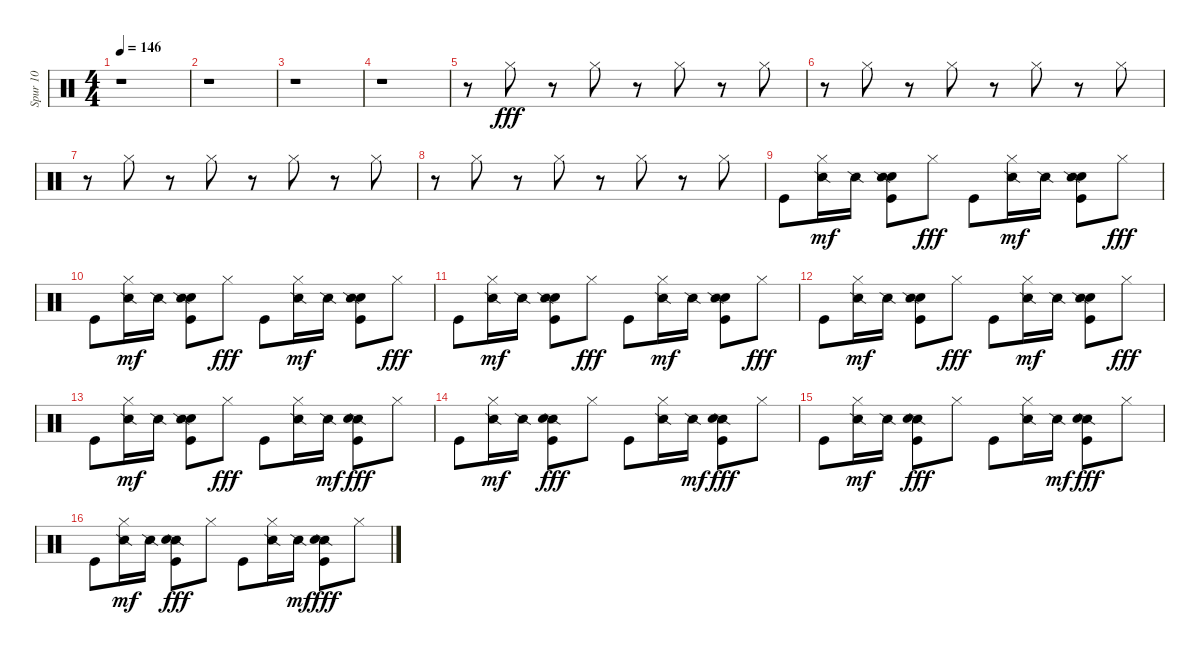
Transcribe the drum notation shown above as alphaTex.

\track ("Spur 10" "Spur 10") {instrument percussion}
\staff {score}
\articulation defaults
\ts (4 4)
\tempo 146
\clef neutral
\ks c
r.1{dy fff} |
r.1 |
r.1 |
r.1 |
r.8 "Hi-Hat (closed)".8 r.8 "Hi-Hat (closed)".8 r.8 "Hi-Hat (closed)".8 r.8 "Hi-Hat (closed)".8 |
r.8 "Hi-Hat (closed)".8 r.8 "Hi-Hat (closed)".8 r.8 "Hi-Hat (closed)".8 r.8 "Hi-Hat (closed)".8 |
r.8 "Hi-Hat (closed)".8 r.8 "Hi-Hat (closed)".8 r.8 "Hi-Hat (closed)".8 r.8 "Hi-Hat (closed)".8 |
r.8 "Hi-Hat (closed)".8 r.8 "Hi-Hat (closed)".8 r.8 "Hi-Hat (closed)".8 r.8 "Hi-Hat (closed)".8 |
"Kick (hit)".8 ("Hi-Hat (closed)" "Snare (side stick) 2").16{dy mf} "Snare (side stick) 2".16 ("Kick (hit)" "Hand Clap (hit)" "Snare (side stick) 2").8 "Hi-Hat (closed)".8{dy fff} "Kick (hit)".8 ("Hi-Hat (closed)" "Snare (side stick) 2").16{dy mf} "Snare (side stick) 2".16 ("Kick (hit)" "Hand Clap (hit)" "Snare (side stick) 2").8 "Hi-Hat (closed)".8{dy fff} |
"Kick (hit)".8 ("Hi-Hat (closed)" "Snare (side stick) 2").16{dy mf} "Snare (side stick) 2".16 ("Kick (hit)" "Hand Clap (hit)" "Snare (side stick) 2").8 "Hi-Hat (closed)".8{dy fff} "Kick (hit)".8 ("Hi-Hat (closed)" "Snare (side stick) 2").16{dy mf} "Snare (side stick) 2".16 ("Kick (hit)" "Hand Clap (hit)" "Snare (side stick) 2").8 "Hi-Hat (closed)".8{dy fff} |
"Kick (hit)".8 ("Hi-Hat (closed)" "Snare (side stick) 2").16{dy mf} "Snare (side stick) 2".16 ("Kick (hit)" "Hand Clap (hit)" "Snare (side stick) 2").8 "Hi-Hat (closed)".8{dy fff} "Kick (hit)".8 ("Hi-Hat (closed)" "Snare (side stick) 2").16{dy mf} "Snare (side stick) 2".16 ("Kick (hit)" "Hand Clap (hit)" "Snare (side stick) 2").8 "Hi-Hat (closed)".8{dy fff} |
"Kick (hit)".8 ("Hi-Hat (closed)" "Snare (side stick) 2").16{dy mf} "Snare (side stick) 2".16 ("Kick (hit)" "Hand Clap (hit)" "Snare (side stick) 2").8 "Hi-Hat (closed)".8{dy fff} "Kick (hit)".8 ("Hi-Hat (closed)" "Snare (side stick) 2").16{dy mf} "Snare (side stick) 2".16 ("Kick (hit)" "Hand Clap (hit)" "Snare (side stick) 2").8 "Hi-Hat (closed)".8{dy fff} |
"Kick (hit)".8 ("Hi-Hat (closed)" "Snare (side stick) 2").16{dy mf} "Snare (side stick) 2".16 ("Kick (hit)" "Hand Clap (hit)" "Snare (side stick) 2").8 "Hi-Hat (closed)".8{dy fff} "Kick (hit)".8 ("Snare (side stick) 2" "Hi-Hat (closed)").16 "Snare (side stick) 2".16{dy mf} ("Kick (hit)" "Snare (side stick) 2" "Hand Clap (hit)").8{dy fff} "Hi-Hat (closed)".8 |
"Kick (hit)".8 ("Hi-Hat (closed)" "Snare (side stick) 2").16{dy mf} "Snare (side stick) 2".16 ("Snare (side stick) 2" "Hand Clap (hit)" "Kick (hit)").8{dy fff} "Hi-Hat (closed)".8 "Kick (hit)".8 ("Snare (side stick) 2" "Hi-Hat (closed)").16 "Snare (side stick) 2".16{dy mf} ("Snare (side stick) 2" "Kick (hit)" "Hand Clap (hit)").8{dy fff} "Hi-Hat (closed)".8 |
"Kick (hit)".8 ("Hi-Hat (closed)" "Snare (side stick) 2").16{dy mf} "Snare (side stick) 2".16 ("Snare (side stick) 2" "Hand Clap (hit)" "Kick (hit)").8{dy fff} "Hi-Hat (closed)".8 "Kick (hit)".8 ("Snare (side stick) 2" "Hi-Hat (closed)").16 "Snare (side stick) 2".16{dy mf} ("Kick (hit)" "Snare (side stick) 2" "Hand Clap (hit)").8{dy fff} "Hi-Hat (closed)".8 |
"Kick (hit)".8 ("Hi-Hat (closed)" "Snare (side stick) 2").16{dy mf} "Snare (side stick) 2".16 ("Snare (side stick) 2" "Kick (hit)" "Hand Clap (hit)").8{dy fff} "Hi-Hat (closed)".8 "Kick (hit)".8 ("Snare (side stick) 2" "Hi-Hat (closed)").16 "Snare (side stick) 2".16{dy mf} ("Kick (hit)" "Snare (side stick) 2" "Hand Clap (hit)").8{dy fff} "Hi-Hat (closed)".8
